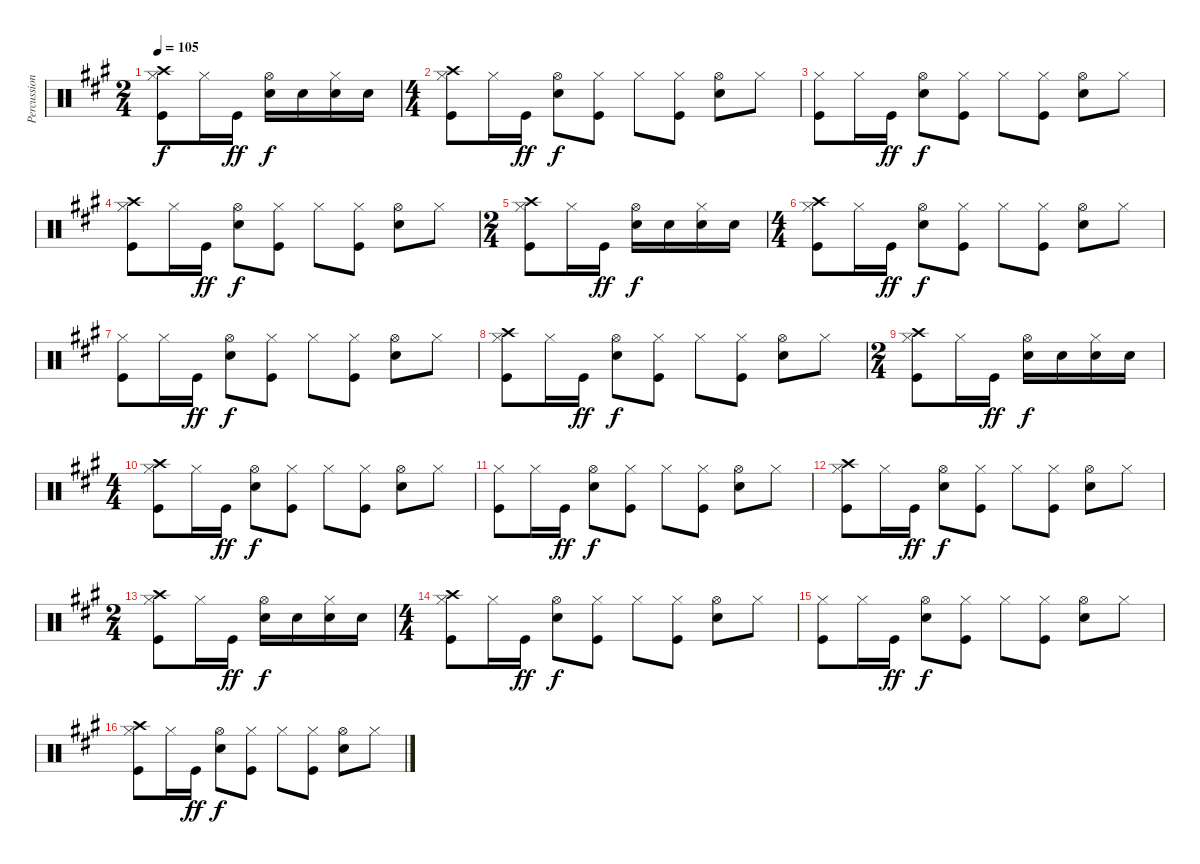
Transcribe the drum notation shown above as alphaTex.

\track ("Percussion" "Percussion") {instrument percussion}
\staff {score}
\articulation defaults
\ts (2 4)
\tempo 105
\clef neutral
\ks a
("Hi-Hat (closed)" "Crash high (hit)" "Kick (hit)").8{dy f} "Hi-Hat (closed)".16 "Kick (hit)".16{dy ff} ("Hi-Hat (open)" "Snare (hit) 2").16{dy f} "Snare (hit) 2".16 ("Hi-Hat (closed)" "Snare (hit) 2").16 "Snare (hit) 2".16 |
\ts (4 4)
("Hi-Hat (closed)" "Crash high (hit)" "Kick (hit)").8 "Hi-Hat (closed)".16 "Kick (hit)".16{dy ff} ("Hi-Hat (open)" "Snare (hit) 2").8{dy f} ("Hi-Hat (closed)" "Kick (hit)").8 "Hi-Hat (closed)".8 ("Hi-Hat (closed)" "Kick (hit)").8 ("Hi-Hat (open)" "Snare (hit) 2").8 "Hi-Hat (closed)".8 |
("Hi-Hat (closed)" "Kick (hit)").8 "Hi-Hat (closed)".16 "Kick (hit)".16{dy ff} ("Hi-Hat (open)" "Snare (hit) 2").8{dy f} ("Hi-Hat (closed)" "Kick (hit)").8 "Hi-Hat (closed)".8 ("Hi-Hat (closed)" "Kick (hit)").8 ("Hi-Hat (open)" "Snare (hit) 2").8 "Hi-Hat (closed)".8 |
("Hi-Hat (closed)" "Crash high (hit)" "Kick (hit)").8 "Hi-Hat (closed)".16 "Kick (hit)".16{dy ff} ("Hi-Hat (open)" "Snare (hit) 2").8{dy f} ("Hi-Hat (closed)" "Kick (hit)").8 "Hi-Hat (closed)".8 ("Hi-Hat (closed)" "Kick (hit)").8 ("Hi-Hat (open)" "Snare (hit) 2").8 "Hi-Hat (closed)".8 |
\ts (2 4)
("Hi-Hat (closed)" "Crash high (hit)" "Kick (hit)").8 "Hi-Hat (closed)".16 "Kick (hit)".16{dy ff} ("Hi-Hat (open)" "Snare (hit) 2").16{dy f} "Snare (hit) 2".16 ("Hi-Hat (closed)" "Snare (hit) 2").16 "Snare (hit) 2".16 |
\ts (4 4)
("Hi-Hat (closed)" "Crash high (hit)" "Kick (hit)").8 "Hi-Hat (closed)".16 "Kick (hit)".16{dy ff} ("Hi-Hat (open)" "Snare (hit) 2").8{dy f} ("Hi-Hat (closed)" "Kick (hit)").8 "Hi-Hat (closed)".8 ("Hi-Hat (closed)" "Kick (hit)").8 ("Hi-Hat (open)" "Snare (hit) 2").8 "Hi-Hat (closed)".8 |
("Hi-Hat (closed)" "Kick (hit)").8 "Hi-Hat (closed)".16 "Kick (hit)".16{dy ff} ("Hi-Hat (open)" "Snare (hit) 2").8{dy f} ("Hi-Hat (closed)" "Kick (hit)").8 "Hi-Hat (closed)".8 ("Hi-Hat (closed)" "Kick (hit)").8 ("Hi-Hat (open)" "Snare (hit) 2").8 "Hi-Hat (closed)".8 |
("Hi-Hat (closed)" "Crash high (hit)" "Kick (hit)").8 "Hi-Hat (closed)".16 "Kick (hit)".16{dy ff} ("Hi-Hat (open)" "Snare (hit) 2").8{dy f} ("Hi-Hat (closed)" "Kick (hit)").8 "Hi-Hat (closed)".8 ("Hi-Hat (closed)" "Kick (hit)").8 ("Hi-Hat (open)" "Snare (hit) 2").8 "Hi-Hat (closed)".8 |
\ts (2 4)
("Hi-Hat (closed)" "Crash high (hit)" "Kick (hit)").8 "Hi-Hat (closed)".16 "Kick (hit)".16{dy ff} ("Hi-Hat (open)" "Snare (hit) 2").16{dy f} "Snare (hit) 2".16 ("Hi-Hat (closed)" "Snare (hit) 2").16 "Snare (hit) 2".16 |
\ts (4 4)
("Hi-Hat (closed)" "Crash high (hit)" "Kick (hit)").8 "Hi-Hat (closed)".16 "Kick (hit)".16{dy ff} ("Hi-Hat (open)" "Snare (hit) 2").8{dy f} ("Hi-Hat (closed)" "Kick (hit)").8 "Hi-Hat (closed)".8 ("Hi-Hat (closed)" "Kick (hit)").8 ("Hi-Hat (open)" "Snare (hit) 2").8 "Hi-Hat (closed)".8 |
("Hi-Hat (closed)" "Kick (hit)").8 "Hi-Hat (closed)".16 "Kick (hit)".16{dy ff} ("Hi-Hat (open)" "Snare (hit) 2").8{dy f} ("Hi-Hat (closed)" "Kick (hit)").8 "Hi-Hat (closed)".8 ("Hi-Hat (closed)" "Kick (hit)").8 ("Hi-Hat (open)" "Snare (hit) 2").8 "Hi-Hat (closed)".8 |
("Hi-Hat (closed)" "Crash high (hit)" "Kick (hit)").8 "Hi-Hat (closed)".16 "Kick (hit)".16{dy ff} ("Hi-Hat (open)" "Snare (hit) 2").8{dy f} ("Hi-Hat (closed)" "Kick (hit)").8 "Hi-Hat (closed)".8 ("Hi-Hat (closed)" "Kick (hit)").8 ("Hi-Hat (open)" "Snare (hit) 2").8 "Hi-Hat (closed)".8 |
\ts (2 4)
("Hi-Hat (closed)" "Crash high (hit)" "Kick (hit)").8 "Hi-Hat (closed)".16 "Kick (hit)".16{dy ff} ("Hi-Hat (open)" "Snare (hit) 2").16{dy f} "Snare (hit) 2".16 ("Hi-Hat (closed)" "Snare (hit) 2").16 "Snare (hit) 2".16 |
\ts (4 4)
("Hi-Hat (closed)" "Crash high (hit)" "Kick (hit)").8 "Hi-Hat (closed)".16 "Kick (hit)".16{dy ff} ("Hi-Hat (open)" "Snare (hit) 2").8{dy f} ("Hi-Hat (closed)" "Kick (hit)").8 "Hi-Hat (closed)".8 ("Hi-Hat (closed)" "Kick (hit)").8 ("Hi-Hat (open)" "Snare (hit) 2").8 "Hi-Hat (closed)".8 |
("Hi-Hat (closed)" "Kick (hit)").8 "Hi-Hat (closed)".16 "Kick (hit)".16{dy ff} ("Hi-Hat (open)" "Snare (hit) 2").8{dy f} ("Hi-Hat (closed)" "Kick (hit)").8 "Hi-Hat (closed)".8 ("Hi-Hat (closed)" "Kick (hit)").8 ("Hi-Hat (open)" "Snare (hit) 2").8 "Hi-Hat (closed)".8 |
("Hi-Hat (closed)" "Crash high (hit)" "Kick (hit)").8 "Hi-Hat (closed)".16 "Kick (hit)".16{dy ff} ("Hi-Hat (open)" "Snare (hit) 2").8{dy f} ("Hi-Hat (closed)" "Kick (hit)").8 "Hi-Hat (closed)".8 ("Hi-Hat (closed)" "Kick (hit)").8 ("Hi-Hat (open)" "Snare (hit) 2").8 "Hi-Hat (closed)".8
